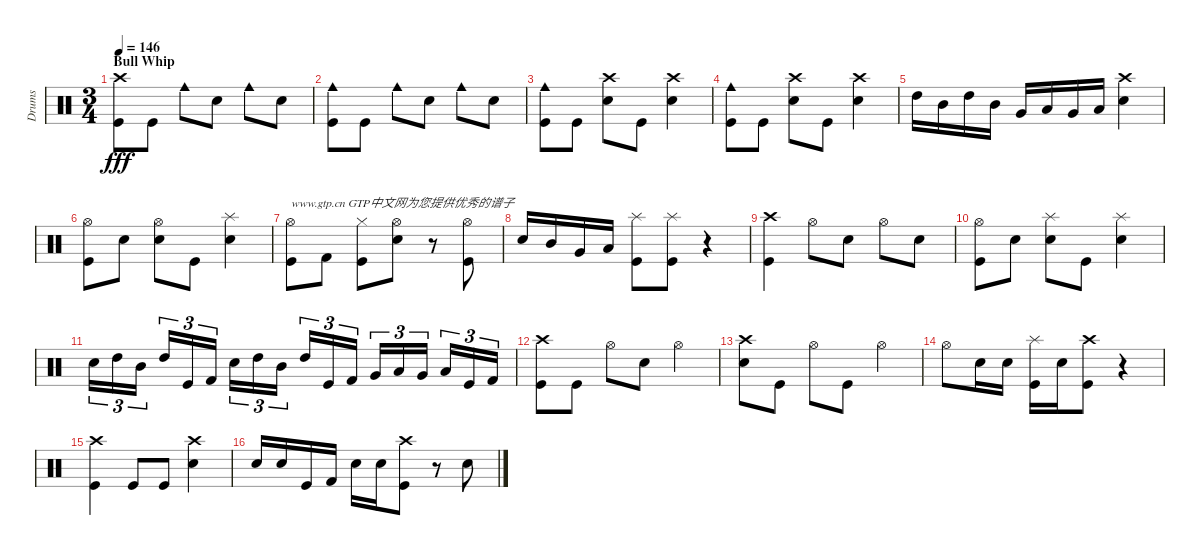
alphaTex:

\track ("Drums" "Drums") {instrument percussion}
\staff {score}
\articulation defaults
\ts (3 4)
\section ("" "Bull Whip")
\tempo 146
\clef neutral
\ks c
("Crash high (hit)" "Kick (hit)").8{dy fff} "Kick (hit)".8 "Cowbell medium (hit)".8 "Snare (hit) 2".8 "Cowbell medium (hit)".8 "Snare (hit) 2".8 |
("Cowbell medium (hit)" "Kick (hit)").8 "Kick (hit)".8 "Cowbell medium (hit)".8 "Snare (hit) 2".8 "Cowbell medium (hit)".8 "Snare (hit) 2".8 |
("Cowbell medium (hit)" "Kick (hit)").8 "Kick (hit)".8 ("Crash high (hit)" "Snare (hit) 2").8 "Kick (hit)".8 ("Crash high (hit)" "Snare (hit) 2").4 |
("Cowbell medium (hit)" "Kick (hit)").8 "Kick (hit)".8 ("Crash high (hit)" "Snare (hit) 2").8 "Kick (hit)".8 ("Crash high (hit)" "Snare (hit) 2").4 |
"High Tom (hit)".16 "Mid Tom (hit)".16 "High Tom (hit)".16 "Mid Tom (hit)".16 "Very Low Tom (hit)".16 "Low Floor Tom (hit)".16 "Very Low Tom (hit)".16 "Low Floor Tom (hit)".16 ("Crash high (hit)" "Snare (hit) 2").4 |
("Hi-Hat (open)" "Kick (hit)").8 "Snare (hit) 2".8 ("Hi-Hat (open)" "Snare (hit) 2").8 "Kick (hit)".8 ("Splash (hit)" "Snare (hit) 2").4 |
("Hi-Hat (open)" "Kick (hit)").8{txt "www.gtp.cn GTP中文网为您提供优秀的谱子"} "Kick (hit) 2".8 ("Hi-Hat (closed)" "Kick (hit)").8 ("Hi-Hat (open)" "Snare (hit) 2").8 r.8 ("Hi-Hat (open)" "Kick (hit)").8 |
"Snare (hit) 2".16 "Mid Tom (hit)".16 "Very Low Tom (hit)".16 "Low Floor Tom (hit)".16 ("Splash (hit)" "Kick (hit)").8 ("Splash (hit)" "Kick (hit)").8 r.4 |
("Crash high (hit)" "Kick (hit)").4 "Hi-Hat (open)".8 "Snare (hit) 2".8 "Hi-Hat (open)".8 "Snare (hit) 2".8 |
("Hi-Hat (open)" "Kick (hit)").8 "Snare (hit) 2".8 ("Splash (hit)" "Snare (hit) 2").8 "Kick (hit)".8 ("Splash (hit)" "Snare (hit) 2").4 |
"Snare (hit) 2".16{tu (3 2)} "High Tom (hit)".16{tu (3 2)} "Mid Tom (hit)".16{tu (3 2)} "High Tom (hit)".16{tu (3 2)} "Kick (hit)".16{tu (3 2)} "Kick (hit) 2".16{tu (3 2)} "Snare (hit) 2".16{tu (3 2)} "High Tom (hit)".16{tu (3 2)} "Mid Tom (hit)".16{tu (3 2)} "High Tom (hit)".16{tu (3 2)} "Kick (hit)".16{tu (3 2)} "Kick (hit) 2".16{tu (3 2)} "Very Low Tom (hit)".16{tu (3 2)} "Low Floor Tom (hit)".16{tu (3 2)} "Very Low Tom (hit)".16{tu (3 2)} "Low Floor Tom (hit)".16{tu (3 2)} "Kick (hit)".16{tu (3 2)} "Kick (hit) 2".16{tu (3 2)} |
("Crash high (hit)" "Kick (hit)").8 "Kick (hit)".8 "Hi-Hat (open)".8 "Snare (hit) 2".8 "Hi-Hat (open)".4 |
("Crash high (hit)" "Snare (hit) 2").8 "Kick (hit)".8 "Hi-Hat (open)".8 "Kick (hit)".8 "Hi-Hat (open)".4 |
"Hi-Hat (open)".8 "Snare (hit) 2".16 "Snare (hit) 2".16 ("Splash (hit)" "Kick (hit)").16 "Snare (hit) 2".16 ("Crash high (hit)" "Kick (hit)").8 r.4 |
("Crash high (hit)" "Kick (hit)").4 "Kick (hit)".8 "Kick (hit)".8 ("Crash high (hit)" "Snare (hit) 2").4 |
"Snare (hit) 2".16 "Snare (hit) 2".16 "Kick (hit)".16 "Kick (hit) 2".16 "Snare (hit) 2".16 "Snare (hit) 2".16 ("Crash high (hit)" "Kick (hit)").8 r.8 "Snare (hit) 2".8
